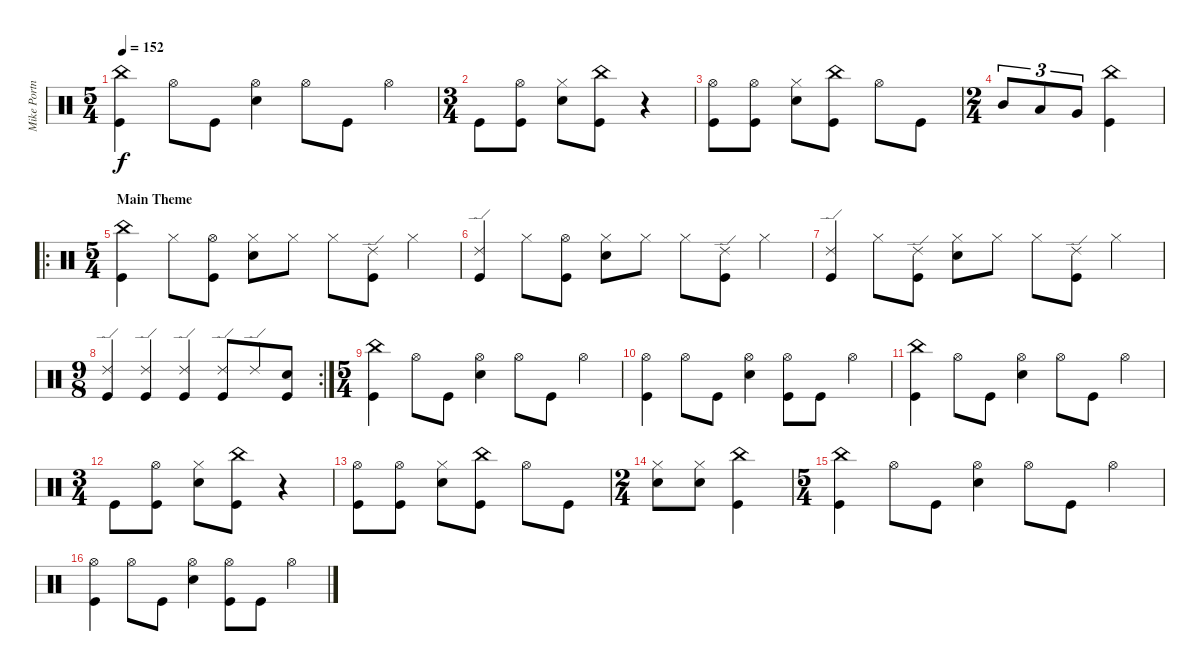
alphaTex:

\track ("Mike Portnoy (Drums)" "Mike Portn") {instrument percussion}
\staff {score}
\articulation defaults
\ts (5 4)
\tempo 152
\clef neutral
\ks c
("Kick (hit)" "China (hit)").4{dy f} "Hi-Hat (open)".8 "Kick (hit)".8 ("Snare (hit) 2" "Hi-Hat (open)").4 "Hi-Hat (open)".8 "Kick (hit)".8 "Hi-Hat (open)".4 |
\ts (3 4)
"Kick (hit)".8 ("Kick (hit)" "Hi-Hat (open)").8 ("Snare (hit) 2" "Hi-Hat (closed)").8 ("Kick (hit)" "China (hit)").8 r.4 |
("Kick (hit)" "Hi-Hat (open)").8 ("Kick (hit)" "Hi-Hat (open)").8 ("Snare (hit) 2" "Hi-Hat (closed)").8 ("Kick (hit)" "China (hit)").8 "Hi-Hat (open)".8 "Kick (hit)".8 |
\ts (2 4)
"Mid Tom (hit)".8{tu (3 2)} "Low Tom (hit)".8{tu (3 2)} "Very Low Tom (hit)".8{tu (3 2)} ("Kick (hit)" "China (hit)").4 |
\ro
\ts (5 4)
\section ("" "Main Theme")
("Kick (hit)" "China (hit)").4 "Hi-Hat (closed)".8 ("Kick (hit)" "Hi-Hat (open)").8 ("Snare (hit) 2" "Hi-Hat (closed)").8 "Hi-Hat (closed)".8 "Hi-Hat (closed)".8 ("Kick (hit)" "Ride (edge) 2").8 "Hi-Hat (closed)".4 |
("Kick (hit)" "Ride (edge) 2").4 "Hi-Hat (closed)".8 ("Kick (hit)" "Hi-Hat (open)").8 ("Snare (hit) 2" "Hi-Hat (closed)").8 "Hi-Hat (closed)".8 "Hi-Hat (closed)".8 ("Kick (hit)" "Ride (edge) 2").8 "Hi-Hat (closed)".4 |
("Kick (hit)" "Ride (edge) 2").4 "Hi-Hat (closed)".8 ("Kick (hit)" "Ride (edge) 2").8 ("Snare (hit) 2" "Hi-Hat (closed)").8 "Hi-Hat (closed)".8 "Hi-Hat (closed)".8 ("Kick (hit)" "Ride (edge) 2").8 "Hi-Hat (closed)".4 |
\rc 2
\ts (9 8)
("Kick (hit)" "Ride (edge) 2").4 ("Kick (hit)" "Ride (edge) 2").4 ("Kick (hit)" "Ride (edge) 2").4 ("Kick (hit)" "Ride (edge) 2").8 "Ride (edge) 2".8 ("Kick (hit)" "Snare (hit) 2").8 |
\ts (5 4)
("Kick (hit)" "China (hit)").4 "Hi-Hat (open)".8 "Kick (hit)".8 ("Snare (hit) 2" "Hi-Hat (open)").4 "Hi-Hat (open)".8 "Kick (hit)".8 "Hi-Hat (open)".4 |
("Kick (hit)" "Hi-Hat (open)").4 "Hi-Hat (open)".8 "Kick (hit)".8 ("Snare (hit) 2" "Hi-Hat (open)").4 ("Kick (hit)" "Hi-Hat (open)").8 "Kick (hit)".8 "Hi-Hat (open)".4 |
("Kick (hit)" "China (hit)").4 "Hi-Hat (open)".8 "Kick (hit)".8 ("Snare (hit) 2" "Hi-Hat (open)").4 "Hi-Hat (open)".8 "Kick (hit)".8 "Hi-Hat (open)".4 |
\ts (3 4)
"Kick (hit)".8 ("Kick (hit)" "Hi-Hat (open)").8 ("Snare (hit) 2" "Hi-Hat (closed)").8 ("Kick (hit)" "China (hit)").8 r.4 |
("Kick (hit)" "Hi-Hat (open)").8 ("Kick (hit)" "Hi-Hat (open)").8 ("Snare (hit) 2" "Hi-Hat (closed)").8 ("Kick (hit)" "China (hit)").8 "Hi-Hat (open)".8 "Kick (hit)".8 |
\ts (2 4)
("Snare (hit) 2" "Hi-Hat (closed)").8 ("Snare (hit) 2" "Hi-Hat (closed)").8 ("Kick (hit)" "China (hit)").4 |
\ts (5 4)
("Kick (hit)" "China (hit)").4 "Hi-Hat (open)".8 "Kick (hit)".8 ("Snare (hit) 2" "Hi-Hat (open)").4 "Hi-Hat (open)".8 "Kick (hit)".8 "Hi-Hat (open)".4 |
("Kick (hit)" "Hi-Hat (open)").4 "Hi-Hat (open)".8 "Kick (hit)".8 ("Snare (hit) 2" "Hi-Hat (open)").4 ("Kick (hit)" "Hi-Hat (open)").8 "Kick (hit)".8 "Hi-Hat (open)".4
